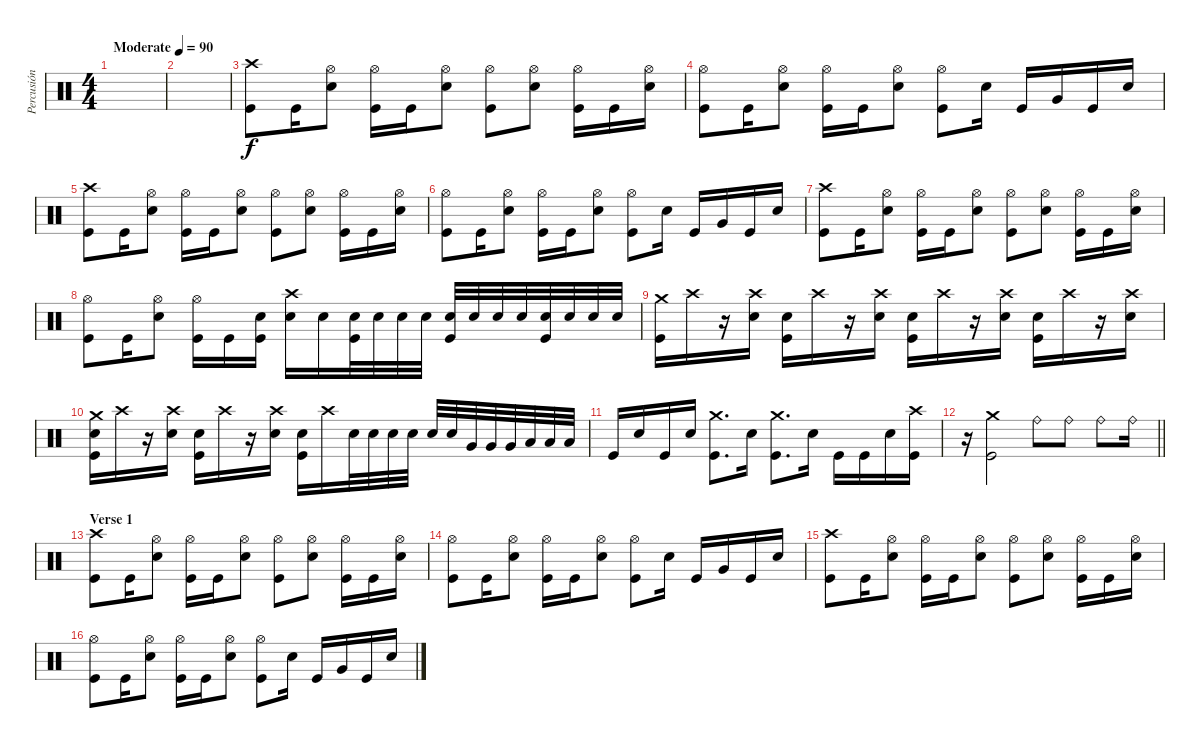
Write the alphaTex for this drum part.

\track ("Percusión" "Percusión") {instrument percussion}
\staff
\articulation defaults
\ts (4 4)
\tempo (90 "Moderate")
\clef neutral
\ks c
|
|
("Kick (hit)" "Crash high (hit)").8 "Kick (hit)".16 ("Hi-Hat (open)" "Electric Snare (hit)").8 ("Kick (hit)" "Hi-Hat (open)").16 "Kick (hit)".16 ("Hi-Hat (open)" "Electric Snare (hit)").8 ("Kick (hit)" "Hi-Hat (open)").8 ("Hi-Hat (open)" "Electric Snare (hit)").8 ("Kick (hit)" "Hi-Hat (open)").16 "Kick (hit)".16 ("Hi-Hat (open)" "Electric Snare (hit)").16 |
("Kick (hit)" "Hi-Hat (open)").8 "Kick (hit)".16 ("Hi-Hat (open)" "Electric Snare (hit)").8 ("Kick (hit)" "Hi-Hat (open)").16 "Kick (hit)".16 ("Hi-Hat (open)" "Electric Snare (hit)").8 ("Kick (hit)" "Hi-Hat (open)").8 "Electric Snare (hit)".16 "Kick (hit)".16 "Very Low Tom (hit)".16 "Kick (hit)".16 "Electric Snare (hit)".16 |
("Kick (hit)" "Crash high (hit)").8 "Kick (hit)".16 ("Hi-Hat (open)" "Electric Snare (hit)").8 ("Kick (hit)" "Hi-Hat (open)").16 "Kick (hit)".16 ("Hi-Hat (open)" "Electric Snare (hit)").8 ("Kick (hit)" "Hi-Hat (open)").8 ("Hi-Hat (open)" "Electric Snare (hit)").8 ("Kick (hit)" "Hi-Hat (open)").16 "Kick (hit)".16 ("Hi-Hat (open)" "Electric Snare (hit)").16 |
("Kick (hit)" "Hi-Hat (open)").8 "Kick (hit)".16 ("Hi-Hat (open)" "Electric Snare (hit)").8 ("Kick (hit)" "Hi-Hat (open)").16 "Kick (hit)".16 ("Hi-Hat (open)" "Electric Snare (hit)").8 ("Kick (hit)" "Hi-Hat (open)").8 "Electric Snare (hit)".16 "Kick (hit)".16 "Very Low Tom (hit)".16 "Kick (hit)".16 "Electric Snare (hit)".16 |
("Kick (hit)" "Crash high (hit)").8 "Kick (hit)".16 ("Hi-Hat (open)" "Electric Snare (hit)").8 ("Kick (hit)" "Hi-Hat (open)").16 "Kick (hit)".16 ("Hi-Hat (open)" "Electric Snare (hit)").8 ("Kick (hit)" "Hi-Hat (open)").8 ("Hi-Hat (open)" "Electric Snare (hit)").8 ("Kick (hit)" "Hi-Hat (open)").16 "Kick (hit)".16 ("Hi-Hat (open)" "Electric Snare (hit)").16 |
("Kick (hit)" "Hi-Hat (open)").8 "Kick (hit)".16 ("Hi-Hat (open)" "Electric Snare (hit)").8 ("Kick (hit)" "Hi-Hat (open)").16 "Kick (hit)".16 ("Kick (hit)" "Electric Snare (hit)").16 ("Crash high (hit)" "Electric Snare (hit)").16 "Electric Snare (hit)".16 ("Kick (hit)" "Electric Snare (hit)").32 "Electric Snare (hit)".32 "Electric Snare (hit)".32 "Electric Snare (hit)".32 ("Kick (hit)" "Electric Snare (hit)").32 "Electric Snare (hit)".32 "Electric Snare (hit)".32 "Electric Snare (hit)".32 ("Kick (hit)" "Electric Snare (hit)").32 "Electric Snare (hit)".32 "Electric Snare (hit)".32 "Electric Snare (hit)".32 |
("Kick (hit)" "Crash medium (hit)").16 "Crash high (hit)".16 r.16 ("Crash high (hit)" "Electric Snare (hit)").16 ("Kick (hit)" "Electric Snare (hit)").16 "Crash high (hit)".16 r.16 ("Crash high (hit)" "Electric Snare (hit)").16 ("Kick (hit)" "Electric Snare (hit)").16 "Crash high (hit)".16 r.16 ("Crash high (hit)" "Electric Snare (hit)").16 ("Kick (hit)" "Electric Snare (hit)").16 "Crash high (hit)".16 r.16 ("Crash high (hit)" "Electric Snare (hit)").16 |
("Kick (hit)" "Crash medium (hit)" "Electric Snare (hit)").16 "Crash high (hit)".16 r.16 ("Crash high (hit)" "Electric Snare (hit)").16 ("Kick (hit)" "Electric Snare (hit)").16 "Crash high (hit)".16 r.16 ("Crash high (hit)" "Electric Snare (hit)").16 ("Kick (hit)" "Electric Snare (hit)").16 "Crash high (hit)".16 "Electric Snare (hit)".32 "Electric Snare (hit)".32 "Electric Snare (hit)".32 "Electric Snare (hit)".32 "Electric Snare (hit)".32 "Electric Snare (hit)".32 "Very Low Tom (hit)".32 "Very Low Tom (hit)".32 "Very Low Tom (hit)".32 "Low Floor Tom (hit)".32 "Low Floor Tom (hit)".32 "Low Floor Tom (hit)".32 |
"Kick (hit)".16 "Electric Snare (hit)".16 "Kick (hit)".16 "Electric Snare (hit)".16 ("Kick (hit)" "Crash medium (hit)").8{d} "Electric Snare (hit)".16 ("Kick (hit)" "Crash medium (hit)").8{d} "Electric Snare (hit)".16 "Kick (hit)".16 "Kick (hit)".16 "Electric Snare (hit)".16 ("Kick (hit)" "Crash high (hit)").16 |
\barLineRight lightlight
r.16 ("Kick (hit)" "Crash medium (hit)").2 "Ride (bell)".8 "Ride (bell)".8 "Ride (bell)".8 "Ride (bell)".16 |
\section ("" "Verse 1")
("Kick (hit)" "Crash high (hit)").8 "Kick (hit)".16 ("Hi-Hat (open)" "Electric Snare (hit)").8 ("Kick (hit)" "Hi-Hat (open)").16 "Kick (hit)".16 ("Hi-Hat (open)" "Electric Snare (hit)").8 ("Kick (hit)" "Hi-Hat (open)").8 ("Hi-Hat (open)" "Electric Snare (hit)").8 ("Kick (hit)" "Hi-Hat (open)").16 "Kick (hit)".16 ("Hi-Hat (open)" "Electric Snare (hit)").16 |
("Kick (hit)" "Hi-Hat (open)").8 "Kick (hit)".16 ("Hi-Hat (open)" "Electric Snare (hit)").8 ("Kick (hit)" "Hi-Hat (open)").16 "Kick (hit)".16 ("Hi-Hat (open)" "Electric Snare (hit)").8 ("Kick (hit)" "Hi-Hat (open)").8 "Electric Snare (hit)".16 "Kick (hit)".16 "Very Low Tom (hit)".16 "Kick (hit)".16 "Electric Snare (hit)".16 |
("Kick (hit)" "Crash high (hit)").8 "Kick (hit)".16 ("Hi-Hat (open)" "Electric Snare (hit)").8 ("Kick (hit)" "Hi-Hat (open)").16 "Kick (hit)".16 ("Hi-Hat (open)" "Electric Snare (hit)").8 ("Kick (hit)" "Hi-Hat (open)").8 ("Hi-Hat (open)" "Electric Snare (hit)").8 ("Kick (hit)" "Hi-Hat (open)").16 "Kick (hit)".16 ("Hi-Hat (open)" "Electric Snare (hit)").16 |
("Kick (hit)" "Hi-Hat (open)").8 "Kick (hit)".16 ("Hi-Hat (open)" "Electric Snare (hit)").8 ("Kick (hit)" "Hi-Hat (open)").16 "Kick (hit)".16 ("Hi-Hat (open)" "Electric Snare (hit)").8 ("Kick (hit)" "Hi-Hat (open)").8 "Electric Snare (hit)".16 "Kick (hit)".16 "Very Low Tom (hit)".16 "Kick (hit)".16 "Electric Snare (hit)".16
